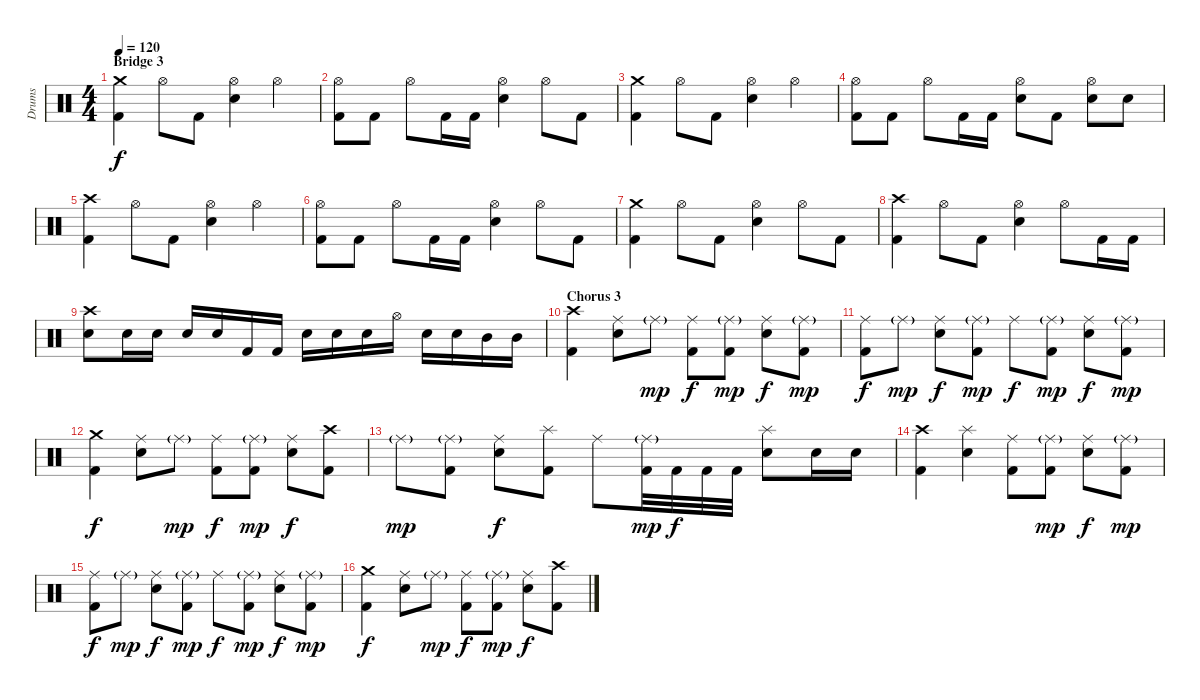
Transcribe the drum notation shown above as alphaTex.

\track ("Drums" "Drums") {instrument percussion}
\staff {score}
\articulation defaults
\ts (4 4)
\section ("" "Bridge 3")
\tempo 120
\clef neutral
\ks c
("Crash medium (hit)" "Kick (hit) 2").4{dy f} "Hi-Hat (open)".8 "Kick (hit) 2".8 ("Hi-Hat (open)" "Snare (hit) 2").4 "Hi-Hat (open)".4 |
("Hi-Hat (open)" "Kick (hit) 2").8 "Kick (hit) 2".8 "Hi-Hat (open)".8 "Kick (hit) 2".16 "Kick (hit) 2".16 ("Hi-Hat (open)" "Snare (hit) 2").4 "Hi-Hat (open)".8 "Kick (hit) 2".8 |
("Crash medium (hit)" "Kick (hit) 2").4 "Hi-Hat (open)".8 "Kick (hit) 2".8 ("Hi-Hat (open)" "Snare (hit) 2").4 "Hi-Hat (open)".4 |
("Hi-Hat (open)" "Kick (hit) 2").8 "Kick (hit) 2".8 "Hi-Hat (open)".8 "Kick (hit) 2".16 "Kick (hit) 2".16 ("Hi-Hat (open)" "Snare (hit) 2").8 "Kick (hit) 2".8 ("Hi-Hat (open)" "Snare (hit) 2").8 "Snare (hit) 2".8 |
("Crash high (hit)" "Kick (hit) 2").4 "Hi-Hat (open)".8 "Kick (hit) 2".8 ("Hi-Hat (open)" "Snare (hit) 2").4 "Hi-Hat (open)".4 |
("Hi-Hat (open)" "Kick (hit) 2").8 "Kick (hit) 2".8 "Hi-Hat (open)".8 "Kick (hit) 2".16 "Kick (hit) 2".16 ("Hi-Hat (open)" "Snare (hit) 2").4 "Hi-Hat (open)".8 "Kick (hit) 2".8 |
("Crash medium (hit)" "Kick (hit) 2").4 "Hi-Hat (open)".8 "Kick (hit) 2".8 ("Hi-Hat (open)" "Snare (hit) 2").4 "Hi-Hat (open)".8 "Kick (hit) 2".8 |
("Crash high (hit)" "Kick (hit) 2").4 "Hi-Hat (open)".8 "Kick (hit) 2".8 ("Hi-Hat (open)" "Snare (hit) 2").4 "Hi-Hat (open)".8 "Kick (hit) 2".16 "Kick (hit) 2".16 |
("Crash high (hit)" "Snare (hit) 2").8 "Snare (hit) 2".16 "Snare (hit) 2".16 "Snare (hit) 2".16 "Snare (hit) 2".16 "Kick (hit) 2".16 "Kick (hit) 2".16 "Snare (hit) 2".16 "Snare (hit) 2".16 "Snare (hit) 2".16 "Hi-Hat (open)".16 "Snare (hit) 2".16 "Snare (hit) 2".16 "Mid Tom (hit)".16 "Mid Tom (hit)".16 |
\section ("" "Chorus 3")
("Crash high (hit)" "Kick (hit) 2").4 ("Ride (middle)" "Snare (hit) 2").8 "Ride (middle)"{g}.8{dy mp} ("Ride (middle)" "Kick (hit) 2").8{dy f} ("Ride (middle)"{g} "Kick (hit) 2").8{dy mp} ("Ride (middle)" "Snare (hit) 2").8{dy f} ("Ride (middle)"{g} "Kick (hit) 2").8{dy mp} |
("Ride (middle)" "Kick (hit) 2").8{dy f} "Ride (middle)"{g}.8{dy mp} ("Ride (middle)" "Snare (hit) 2").8{dy f} ("Ride (middle)"{g} "Kick (hit) 2").8{dy mp} "Ride (middle)".8{dy f} ("Ride (middle)"{g} "Kick (hit) 2").8{dy mp} ("Ride (middle)" "Snare (hit) 2").8{dy f} ("Ride (middle)"{g} "Kick (hit) 2").8{dy mp} |
("Crash medium (hit)" "Kick (hit) 2").4{dy f} ("Ride (middle)" "Snare (hit) 2").8 "Ride (middle)"{g}.8{dy mp} ("Ride (middle)" "Kick (hit) 2").8{dy f} ("Ride (middle)"{g} "Kick (hit) 2").8{dy mp} ("Ride (middle)" "Snare (hit) 2").8{dy f} ("Crash high (hit)" "Kick (hit) 2").8 |
"Ride (middle)"{g}.8{dy mp} ("Ride (middle)"{g} "Kick (hit) 2").8 ("Ride (middle)" "Snare (hit) 2").8{dy f} ("Splash (hit)" "Kick (hit) 2").8 "Ride (middle)".8 ("Ride (middle)"{g} "Kick (hit) 2").32{dy mp} "Kick (hit) 2".32{dy f} "Kick (hit) 2".32 "Kick (hit) 2".32 ("Splash (hit)" "Snare (hit) 2").8 "Snare (hit) 2".16 "Snare (hit) 2".16 |
("Crash high (hit)" "Kick (hit) 2").4 ("Splash (hit)" "Snare (hit) 2").4 ("Ride (middle)" "Kick (hit) 2").8 ("Ride (middle)"{g} "Kick (hit) 2").8{dy mp} ("Ride (middle)" "Snare (hit) 2").8{dy f} ("Ride (middle)"{g} "Kick (hit) 2").8{dy mp} |
("Ride (middle)" "Kick (hit) 2").8{dy f} "Ride (middle)"{g}.8{dy mp} ("Ride (middle)" "Snare (hit) 2").8{dy f} ("Ride (middle)"{g} "Kick (hit) 2").8{dy mp} "Ride (middle)".8{dy f} ("Ride (middle)"{g} "Kick (hit) 2").8{dy mp} ("Ride (middle)" "Snare (hit) 2").8{dy f} ("Ride (middle)"{g} "Kick (hit) 2").8{dy mp} |
("Crash medium (hit)" "Kick (hit) 2").4{dy f} ("Ride (middle)" "Snare (hit) 2").8 "Ride (middle)"{g}.8{dy mp} ("Ride (middle)" "Kick (hit) 2").8{dy f} ("Ride (middle)"{g} "Kick (hit) 2").8{dy mp} ("Ride (middle)" "Snare (hit) 2").8{dy f} ("Crash high (hit)" "Kick (hit) 2").8
